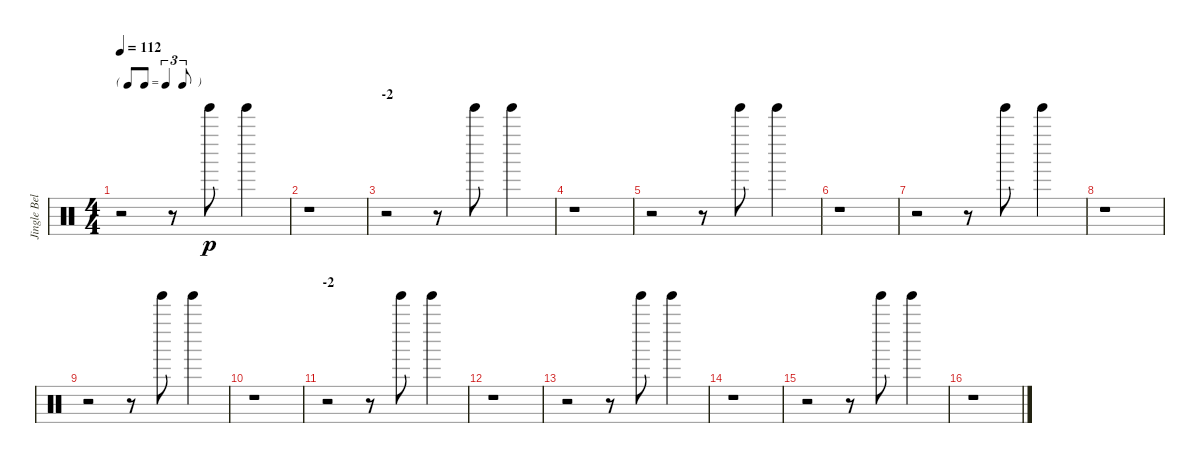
\track ("Jingle Bell" "Jingle Bel") {instrument percussion}
\staff {score}
\articulation defaults
\ts (4 4)
\tf triplet8th
\tempo 112
\clef neutral
\ks c
r.2{dy p} r.8 "Tinkle Bell (hit)".8 "Tinkle Bell (hit)".4 |
r.1 |
\section ("" "-2")
r.2 r.8 "Tinkle Bell (hit)".8 "Tinkle Bell (hit)".4 |
r.1 |
r.2 r.8 "Tinkle Bell (hit)".8 "Tinkle Bell (hit)".4 |
r.1 |
r.2 r.8 "Tinkle Bell (hit)".8 "Tinkle Bell (hit)".4 |
r.1 |
r.2 r.8 "Tinkle Bell (hit)".8 "Tinkle Bell (hit)".4 |
r.1 |
\section ("" "-2")
r.2 r.8 "Tinkle Bell (hit)".8 "Tinkle Bell (hit)".4 |
r.1 |
r.2 r.8 "Tinkle Bell (hit)".8 "Tinkle Bell (hit)".4 |
r.1 |
r.2 r.8 "Tinkle Bell (hit)".8 "Tinkle Bell (hit)".4 |
r.1
